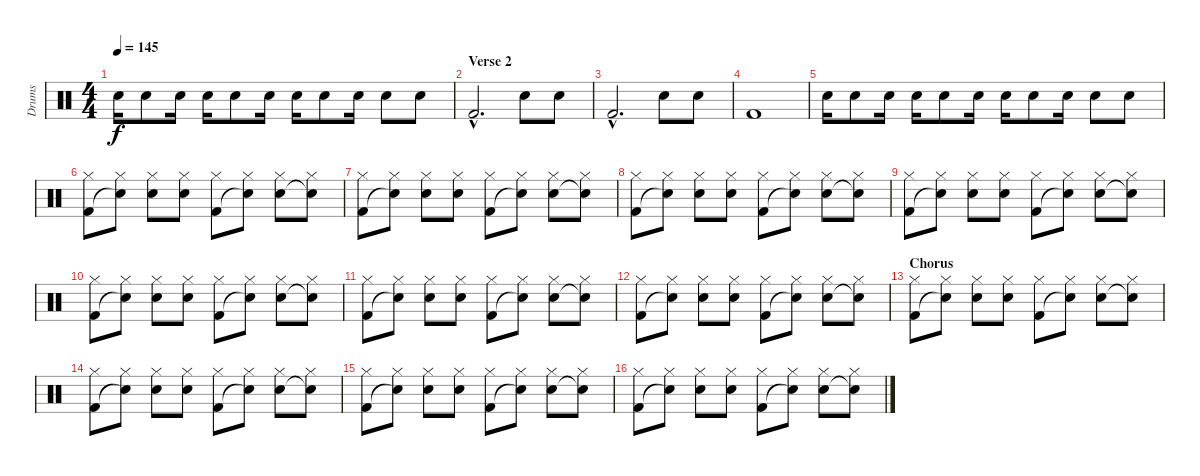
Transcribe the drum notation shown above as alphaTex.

\track ("Drums" "Drums") {instrument percussion}
\staff {score}
\articulation defaults
\ts (4 4)
\tempo 145
\clef neutral
\ks c "Snare (hit) 2".16{dy f} "Snare (hit) 2".8 "Snare (hit) 2".16 "Snare (hit) 2".16 "Snare (hit) 2".8 "Snare (hit) 2".16 "Snare (hit) 2".16 "Snare (hit) 2".8 "Snare (hit) 2".16 "Snare (hit) 2".8 "Snare (hit) 2".8
|
\section ("" "Verse 2")
"Kick (hit) 2"{hac}.2{d} "Snare (hit) 2".8 "Snare (hit) 2".8 |
"Kick (hit) 2"{hac}.2{d} "Snare (hit) 2".8 "Snare (hit) 2".8 |
"Kick (hit) 2".1 |
"Snare (hit) 2".16 "Snare (hit) 2".8 "Snare (hit) 2".16 "Snare (hit) 2".16 "Snare (hit) 2".8 "Snare (hit) 2".16 "Snare (hit) 2".16 "Snare (hit) 2".8 "Snare (hit) 2".16 "Snare (hit) 2".8 "Snare (hit) 2".8 |
("Kick (hit) 2" "Hi-Hat (closed)").8 ("Snare (hit)"{t} "Hi-Hat (closed)").8 ("Snare (hit) 2" "Hi-Hat (closed)").8 ("Snare (hit) 2" "Hi-Hat (closed)").8 ("Kick (hit) 2" "Hi-Hat (closed)").8 ("Snare (hit)"{t} "Hi-Hat (closed)").8 ("Snare (hit) 2" "Hi-Hat (closed)").8 ("Snare (hit)"{t} "Hi-Hat (closed)").8 |
("Kick (hit) 2" "Hi-Hat (closed)").8 ("Snare (hit)"{t} "Hi-Hat (closed)").8 ("Snare (hit) 2" "Hi-Hat (closed)").8 ("Snare (hit) 2" "Hi-Hat (closed)").8 ("Kick (hit) 2" "Hi-Hat (closed)").8 ("Snare (hit)"{t} "Hi-Hat (closed)").8 ("Snare (hit) 2" "Hi-Hat (closed)").8 ("Snare (hit)"{t} "Hi-Hat (closed)").8 |
("Kick (hit) 2" "Hi-Hat (closed)").8 ("Snare (hit)"{t} "Hi-Hat (closed)").8 ("Snare (hit) 2" "Hi-Hat (closed)").8 ("Snare (hit) 2" "Hi-Hat (closed)").8 ("Kick (hit) 2" "Hi-Hat (closed)").8 ("Snare (hit)"{t} "Hi-Hat (closed)").8 ("Snare (hit) 2" "Hi-Hat (closed)").8 ("Snare (hit)"{t} "Hi-Hat (closed)").8 |
("Kick (hit) 2" "Hi-Hat (closed)").8 ("Snare (hit)"{t} "Hi-Hat (closed)").8 ("Snare (hit) 2" "Hi-Hat (closed)").8 ("Snare (hit) 2" "Hi-Hat (closed)").8 ("Kick (hit) 2" "Hi-Hat (closed)").8 ("Snare (hit)"{t} "Hi-Hat (closed)").8 ("Snare (hit) 2" "Hi-Hat (closed)").8 ("Snare (hit)"{t} "Hi-Hat (closed)").8 |
("Kick (hit) 2" "Hi-Hat (closed)").8 ("Snare (hit)"{t} "Hi-Hat (closed)").8 ("Snare (hit) 2" "Hi-Hat (closed)").8 ("Snare (hit) 2" "Hi-Hat (closed)").8 ("Kick (hit) 2" "Hi-Hat (closed)").8 ("Snare (hit)"{t} "Hi-Hat (closed)").8 ("Snare (hit) 2" "Hi-Hat (closed)").8 ("Snare (hit)"{t} "Hi-Hat (closed)").8 |
("Kick (hit) 2" "Hi-Hat (closed)").8 ("Snare (hit)"{t} "Hi-Hat (closed)").8 ("Snare (hit) 2" "Hi-Hat (closed)").8 ("Snare (hit) 2" "Hi-Hat (closed)").8 ("Kick (hit) 2" "Hi-Hat (closed)").8 ("Snare (hit)"{t} "Hi-Hat (closed)").8 ("Snare (hit) 2" "Hi-Hat (closed)").8 ("Snare (hit)"{t} "Hi-Hat (closed)").8 |
("Kick (hit) 2" "Hi-Hat (closed)").8 ("Snare (hit)"{t} "Hi-Hat (closed)").8 ("Snare (hit) 2" "Hi-Hat (closed)").8 ("Snare (hit) 2" "Hi-Hat (closed)").8 ("Kick (hit) 2" "Hi-Hat (closed)").8 ("Snare (hit)"{t} "Hi-Hat (closed)").8 ("Snare (hit) 2" "Hi-Hat (closed)").8 ("Snare (hit)"{t} "Hi-Hat (closed)").8 |
\section ("" "Chorus")
("Kick (hit) 2" "Hi-Hat (closed)").8 ("Snare (hit)"{t} "Hi-Hat (closed)").8 ("Snare (hit) 2" "Hi-Hat (closed)").8 ("Snare (hit) 2" "Hi-Hat (closed)").8 ("Kick (hit) 2" "Hi-Hat (closed)").8 ("Snare (hit)"{t} "Hi-Hat (closed)").8 ("Snare (hit) 2" "Hi-Hat (closed)").8 ("Snare (hit)"{t} "Hi-Hat (closed)").8 |
("Kick (hit) 2" "Hi-Hat (closed)").8 ("Snare (hit)"{t} "Hi-Hat (closed)").8 ("Snare (hit) 2" "Hi-Hat (closed)").8 ("Snare (hit) 2" "Hi-Hat (closed)").8 ("Kick (hit) 2" "Hi-Hat (closed)").8 ("Snare (hit)"{t} "Hi-Hat (closed)").8 ("Snare (hit) 2" "Hi-Hat (closed)").8 ("Snare (hit)"{t} "Hi-Hat (closed)").8 |
("Kick (hit) 2" "Hi-Hat (closed)").8 ("Snare (hit)"{t} "Hi-Hat (closed)").8 ("Snare (hit) 2" "Hi-Hat (closed)").8 ("Snare (hit) 2" "Hi-Hat (closed)").8 ("Kick (hit) 2" "Hi-Hat (closed)").8 ("Snare (hit)"{t} "Hi-Hat (closed)").8 ("Snare (hit) 2" "Hi-Hat (closed)").8 ("Snare (hit)"{t} "Hi-Hat (closed)").8 |
("Kick (hit) 2" "Hi-Hat (closed)").8 ("Snare (hit)"{t} "Hi-Hat (closed)").8 ("Snare (hit) 2" "Hi-Hat (closed)").8 ("Snare (hit) 2" "Hi-Hat (closed)").8 ("Kick (hit) 2" "Hi-Hat (closed)").8 ("Snare (hit)"{t} "Hi-Hat (closed)").8 ("Snare (hit) 2" "Hi-Hat (closed)").8 ("Snare (hit)"{t} "Hi-Hat (closed)").8
